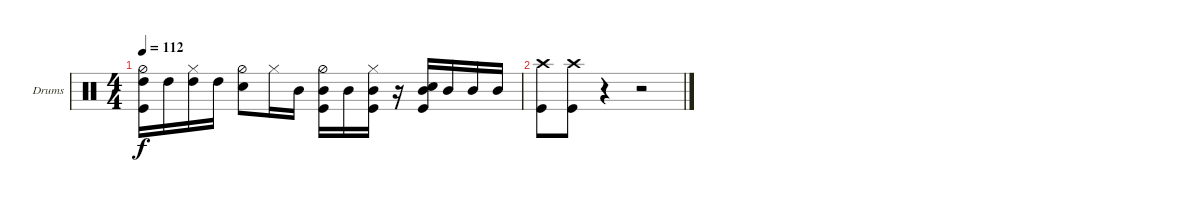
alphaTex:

\defaultSystemsLayout 4
\bracketExtendMode groupsimilarinstruments
\firstSystemTrackNameOrientation horizontal
\otherSystemsTrackNameOrientation horizontal
\track ("Drumkit" "Drums") {instrument percussion}
\staff {score}
\articulation defaults
\ts (4 4)
\tempo 112
\clef neutral
\ks c
("High Tom (hit)" "Hi-Hat (half)" "Kick (hit)").16{dy f} "High Tom (hit)".16 ("High Tom (hit)" "Hi-Hat (closed)").16 "High Tom (hit)".16 ("Snare (hit) 2" "Hi-Hat (half)").8 "Hi-Hat (closed)".16 "Mid Tom (hit)".16 ("Kick (hit)" "Mid Tom (hit)" "Hi-Hat (half)").16 "Mid Tom (hit)".16 ("Mid Tom (hit)" "Kick (hit)" "Hi-Hat (closed)").16 r.16 ("Kick (hit)" "Snare (hit) 2" "Mid Tom (hit)").16 "Mid Tom (hit)".16 "Mid Tom (hit)".16 "Mid Tom (hit)".16 |
("Kick (hit)" "Crash high (hit)").8 ("Kick (hit)" "Crash high (hit)").8 r.4 r.2
